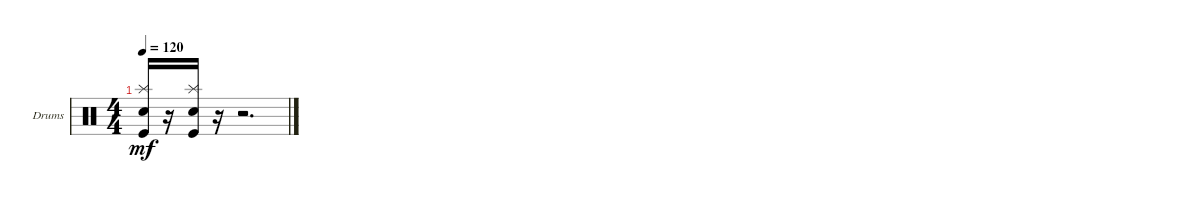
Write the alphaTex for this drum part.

\bracketExtendMode groupsimilarinstruments
\firstSystemTrackNameOrientation horizontal
\otherSystemsTrackNameOrientation horizontal
\track ("БАРАБАНЫ" "Drums") {instrument percussion}
\staff {score}
\articulation defaults
\ts (4 4)
\tempo 120
\clef neutral
\ks c
("Snare (hit) 2" "Splash (hit)" "Kick (hit)").16{dy mf} r.16 ("Kick (hit)" "Snare (hit) 2" "Splash (hit)").16 r.16 r.2{d}
